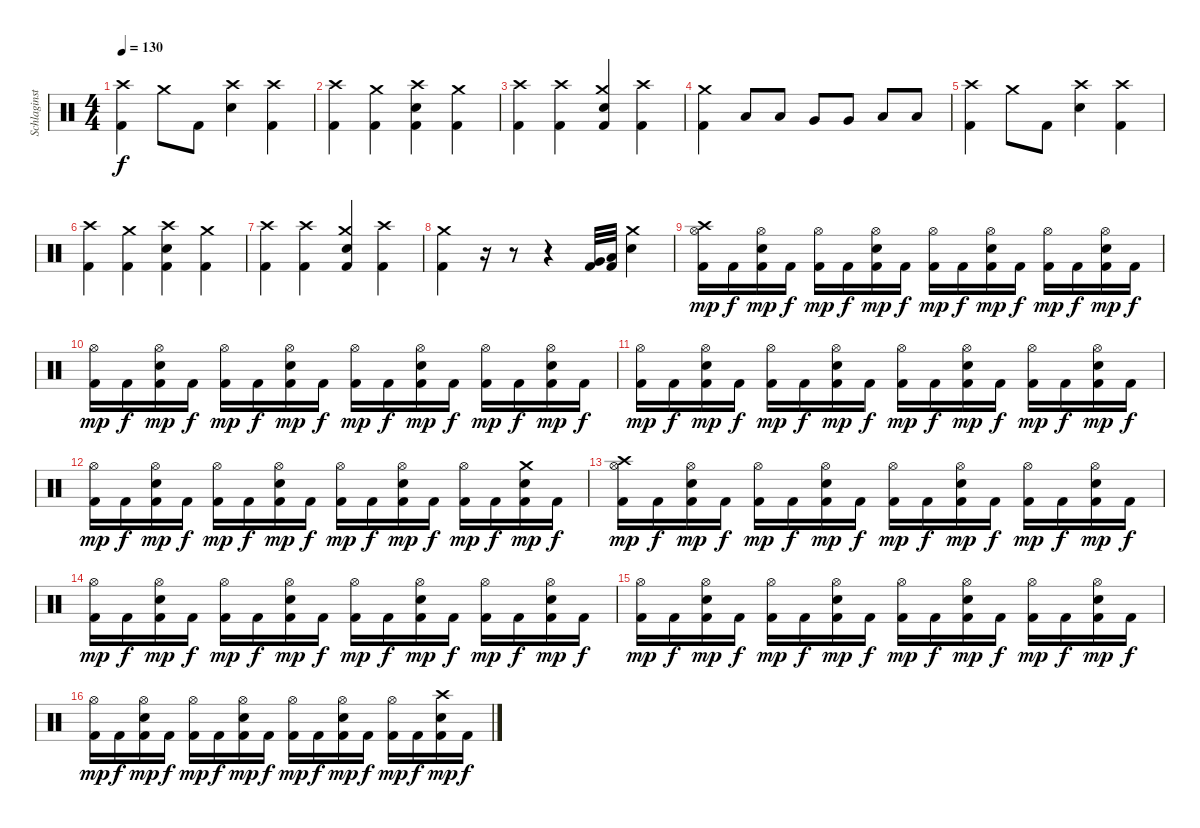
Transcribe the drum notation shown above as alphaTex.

\track ("Schlaginstrumente - Auswahl" "Schlaginst") {instrument percussion}
\staff {score}
\articulation defaults
\ts (4 4)
\tempo 130
\clef neutral
\ks c
("Crash high (hit)" "Kick (hit) 2").4{dy f} "Crash medium (hit)".8 "Kick (hit) 2".8 ("Crash high (hit)" "Electric Snare (hit)").4 ("Crash high (hit)" "Kick (hit) 2").4 |
("Crash high (hit)" "Kick (hit) 2").4 ("Crash medium (hit)" "Kick (hit) 2").4 ("Crash high (hit)" "Electric Snare (hit)" "Kick (hit) 2").4 ("Crash medium (hit)" "Kick (hit) 2").4 |
("Crash high (hit)" "Kick (hit) 2").4 ("Crash high (hit)" "Kick (hit) 2").4 ("Crash medium (hit)" "Electric Snare (hit)" "Kick (hit) 2").4 ("Crash high (hit)" "Kick (hit) 2").4 |
("Crash medium (hit)" "Kick (hit) 2").4 "Low Tom (hit)".8 "Low Tom (hit)".8 "Very Low Tom (hit)".8 "Very Low Tom (hit)".8 "Low Floor Tom (hit)".8 "Low Floor Tom (hit)".8 |
("Crash high (hit)" "Kick (hit) 2").4 "Crash medium (hit)".8 "Kick (hit) 2".8 ("Crash high (hit)" "Electric Snare (hit)").4 ("Crash high (hit)" "Kick (hit) 2").4 |
("Crash high (hit)" "Kick (hit) 2").4 ("Crash medium (hit)" "Kick (hit) 2").4 ("Crash high (hit)" "Electric Snare (hit)" "Kick (hit) 2").4 ("Crash medium (hit)" "Kick (hit) 2").4 |
("Crash high (hit)" "Kick (hit) 2").4 ("Crash high (hit)" "Kick (hit) 2").4 ("Crash medium (hit)" "Electric Snare (hit)" "Kick (hit) 2").4 ("Crash high (hit)" "Kick (hit) 2").4 |
("Crash medium (hit)" "Kick (hit) 2").4 r.16 r.8 r.4 ("Kick (hit) 2" "Very Low Tom (hit)").32 ("Kick (hit) 2" "Low Floor Tom (hit)").32 ("Crash medium (hit)" "Electric Snare (hit)").4 |
("Crash high (hit)" "Hi-Hat (open)" "Kick (hit) 2").16{dy mp} "Kick (hit) 2".16{dy f} ("Hi-Hat (open)" "Electric Snare (hit)" "Kick (hit) 2").16{dy mp} "Kick (hit) 2".16{dy f} ("Hi-Hat (open)" "Kick (hit) 2").16{dy mp} "Kick (hit) 2".16{dy f} ("Hi-Hat (open)" "Electric Snare (hit)" "Kick (hit) 2").16{dy mp} "Kick (hit) 2".16{dy f} ("Hi-Hat (open)" "Kick (hit) 2").16{dy mp} "Kick (hit) 2".16{dy f} ("Hi-Hat (open)" "Electric Snare (hit)" "Kick (hit) 2").16{dy mp} "Kick (hit) 2".16{dy f} ("Hi-Hat (open)" "Kick (hit) 2").16{dy mp} "Kick (hit) 2".16{dy f} ("Hi-Hat (open)" "Electric Snare (hit)" "Kick (hit) 2").16{dy mp} "Kick (hit) 2".16{dy f} |
("Hi-Hat (open)" "Kick (hit) 2").16{dy mp} "Kick (hit) 2".16{dy f} ("Hi-Hat (open)" "Electric Snare (hit)" "Kick (hit) 2").16{dy mp} "Kick (hit) 2".16{dy f} ("Hi-Hat (open)" "Kick (hit) 2").16{dy mp} "Kick (hit) 2".16{dy f} ("Hi-Hat (open)" "Electric Snare (hit)" "Kick (hit) 2").16{dy mp} "Kick (hit) 2".16{dy f} ("Hi-Hat (open)" "Kick (hit) 2").16{dy mp} "Kick (hit) 2".16{dy f} ("Hi-Hat (open)" "Electric Snare (hit)" "Kick (hit) 2").16{dy mp} "Kick (hit) 2".16{dy f} ("Hi-Hat (open)" "Kick (hit) 2").16{dy mp} "Kick (hit) 2".16{dy f} ("Hi-Hat (open)" "Electric Snare (hit)" "Kick (hit) 2").16{dy mp} "Kick (hit) 2".16{dy f} |
("Hi-Hat (open)" "Kick (hit) 2").16{dy mp} "Kick (hit) 2".16{dy f} ("Hi-Hat (open)" "Electric Snare (hit)" "Kick (hit) 2").16{dy mp} "Kick (hit) 2".16{dy f} ("Hi-Hat (open)" "Kick (hit) 2").16{dy mp} "Kick (hit) 2".16{dy f} ("Hi-Hat (open)" "Electric Snare (hit)" "Kick (hit) 2").16{dy mp} "Kick (hit) 2".16{dy f} ("Hi-Hat (open)" "Kick (hit) 2").16{dy mp} "Kick (hit) 2".16{dy f} ("Hi-Hat (open)" "Electric Snare (hit)" "Kick (hit) 2").16{dy mp} "Kick (hit) 2".16{dy f} ("Hi-Hat (open)" "Kick (hit) 2").16{dy mp} "Kick (hit) 2".16{dy f} ("Hi-Hat (open)" "Electric Snare (hit)" "Kick (hit) 2").16{dy mp} "Kick (hit) 2".16{dy f} |
("Hi-Hat (open)" "Kick (hit) 2").16{dy mp} "Kick (hit) 2".16{dy f} ("Hi-Hat (open)" "Electric Snare (hit)" "Kick (hit) 2").16{dy mp} "Kick (hit) 2".16{dy f} ("Hi-Hat (open)" "Kick (hit) 2").16{dy mp} "Kick (hit) 2".16{dy f} ("Hi-Hat (open)" "Electric Snare (hit)" "Kick (hit) 2").16{dy mp} "Kick (hit) 2".16{dy f} ("Hi-Hat (open)" "Kick (hit) 2").16{dy mp} "Kick (hit) 2".16{dy f} ("Hi-Hat (open)" "Electric Snare (hit)" "Kick (hit) 2").16{dy mp} "Kick (hit) 2".16{dy f} ("Hi-Hat (open)" "Kick (hit) 2").16{dy mp} "Kick (hit) 2".16{dy f} ("Crash medium (hit)" "Electric Snare (hit)" "Kick (hit) 2").16{dy mp} "Kick (hit) 2".16{dy f} |
("Crash high (hit)" "Hi-Hat (open)" "Kick (hit) 2").16{dy mp} "Kick (hit) 2".16{dy f} ("Hi-Hat (open)" "Electric Snare (hit)" "Kick (hit) 2").16{dy mp} "Kick (hit) 2".16{dy f} ("Hi-Hat (open)" "Kick (hit) 2").16{dy mp} "Kick (hit) 2".16{dy f} ("Hi-Hat (open)" "Electric Snare (hit)" "Kick (hit) 2").16{dy mp} "Kick (hit) 2".16{dy f} ("Hi-Hat (open)" "Kick (hit) 2").16{dy mp} "Kick (hit) 2".16{dy f} ("Hi-Hat (open)" "Electric Snare (hit)" "Kick (hit) 2").16{dy mp} "Kick (hit) 2".16{dy f} ("Hi-Hat (open)" "Kick (hit) 2").16{dy mp} "Kick (hit) 2".16{dy f} ("Hi-Hat (open)" "Electric Snare (hit)" "Kick (hit) 2").16{dy mp} "Kick (hit) 2".16{dy f} |
("Hi-Hat (open)" "Kick (hit) 2").16{dy mp} "Kick (hit) 2".16{dy f} ("Hi-Hat (open)" "Electric Snare (hit)" "Kick (hit) 2").16{dy mp} "Kick (hit) 2".16{dy f} ("Hi-Hat (open)" "Kick (hit) 2").16{dy mp} "Kick (hit) 2".16{dy f} ("Hi-Hat (open)" "Electric Snare (hit)" "Kick (hit) 2").16{dy mp} "Kick (hit) 2".16{dy f} ("Hi-Hat (open)" "Kick (hit) 2").16{dy mp} "Kick (hit) 2".16{dy f} ("Hi-Hat (open)" "Electric Snare (hit)" "Kick (hit) 2").16{dy mp} "Kick (hit) 2".16{dy f} ("Hi-Hat (open)" "Kick (hit) 2").16{dy mp} "Kick (hit) 2".16{dy f} ("Hi-Hat (open)" "Electric Snare (hit)" "Kick (hit) 2").16{dy mp} "Kick (hit) 2".16{dy f} |
("Hi-Hat (open)" "Kick (hit) 2").16{dy mp} "Kick (hit) 2".16{dy f} ("Hi-Hat (open)" "Electric Snare (hit)" "Kick (hit) 2").16{dy mp} "Kick (hit) 2".16{dy f} ("Hi-Hat (open)" "Kick (hit) 2").16{dy mp} "Kick (hit) 2".16{dy f} ("Hi-Hat (open)" "Electric Snare (hit)" "Kick (hit) 2").16{dy mp} "Kick (hit) 2".16{dy f} ("Hi-Hat (open)" "Kick (hit) 2").16{dy mp} "Kick (hit) 2".16{dy f} ("Hi-Hat (open)" "Electric Snare (hit)" "Kick (hit) 2").16{dy mp} "Kick (hit) 2".16{dy f} ("Hi-Hat (open)" "Kick (hit) 2").16{dy mp} "Kick (hit) 2".16{dy f} ("Hi-Hat (open)" "Electric Snare (hit)" "Kick (hit) 2").16{dy mp} "Kick (hit) 2".16{dy f} |
("Hi-Hat (open)" "Kick (hit) 2").16{dy mp} "Kick (hit) 2".16{dy f} ("Hi-Hat (open)" "Electric Snare (hit)" "Kick (hit) 2").16{dy mp} "Kick (hit) 2".16{dy f} ("Hi-Hat (open)" "Kick (hit) 2").16{dy mp} "Kick (hit) 2".16{dy f} ("Hi-Hat (open)" "Electric Snare (hit)" "Kick (hit) 2").16{dy mp} "Kick (hit) 2".16{dy f} ("Hi-Hat (open)" "Kick (hit) 2").16{dy mp} "Kick (hit) 2".16{dy f} ("Hi-Hat (open)" "Electric Snare (hit)" "Kick (hit) 2").16{dy mp} "Kick (hit) 2".16{dy f} ("Hi-Hat (open)" "Kick (hit) 2").16{dy mp} "Kick (hit) 2".16{dy f} ("Crash high (hit)" "Electric Snare (hit)" "Kick (hit) 2").16{dy mp} "Kick (hit) 2".16{dy f}
